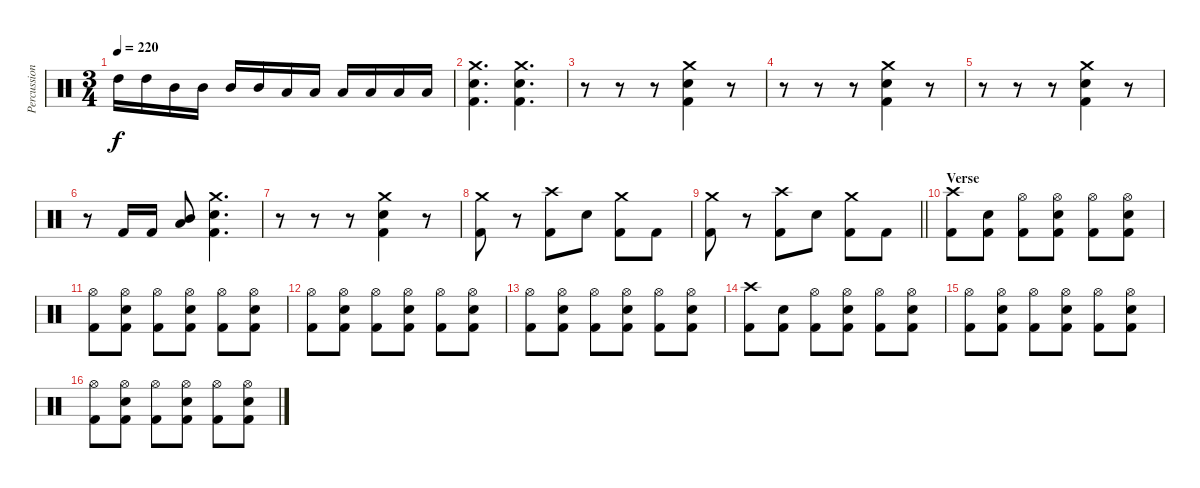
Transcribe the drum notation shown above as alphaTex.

\track ("Percussion" "Percussion") {instrument percussion}
\staff {score}
\articulation defaults
\ts (3 4)
\tempo 220
\clef neutral
\ks c "High Tom (hit)".16{dy f} "High Tom (hit)".16 "Mid Tom (hit)".16 "Mid Tom (hit)".16 "Mid Tom (hit)".16 "Mid Tom (hit)".16 "Low Tom (hit)".16 "Low Tom (hit)".16 "Low Tom (hit)".16 "Low Tom (hit)".16 "Low Floor Tom (hit)".16 "Low Floor Tom (hit)".16
|
("Crash medium (hit)" "Electric Snare (hit)" "Kick (hit) 2").4{d} ("Crash medium (hit)" "Electric Snare (hit)" "Kick (hit) 2").4{d} |
r.8 r.8 r.8 ("Crash medium (hit)" "Electric Snare (hit)" "Kick (hit) 2").4 r.8 |
r.8 r.8 r.8 ("Crash medium (hit)" "Electric Snare (hit)" "Kick (hit) 2").4 r.8 |
r.8 r.8 r.8 ("Crash medium (hit)" "Electric Snare (hit)" "Kick (hit) 2").4 r.8 |
r.8 "Kick (hit) 2".16 "Kick (hit) 2".16 ("Mid Tom (hit)" "Low Tom (hit)").8 ("Crash medium (hit)" "Electric Snare (hit)" "Kick (hit) 2").4{d} |
r.8 r.8 r.8 ("Crash medium (hit)" "Electric Snare (hit)" "Kick (hit) 2").4 r.8 |
("Crash medium (hit)" "Kick (hit) 2").8 r.8 ("Crash high (hit)" "Kick (hit) 2").8 "Electric Snare (hit)".8 ("Crash medium (hit)" "Kick (hit) 2").8 "Kick (hit) 2".8 |
\barLineRight lightlight
("Crash medium (hit)" "Kick (hit) 2").8 r.8 ("Crash high (hit)" "Kick (hit) 2").8 "Electric Snare (hit)".8 ("Crash medium (hit)" "Kick (hit) 2").8 "Kick (hit) 2".8 |
\section ("" "Verse")
("Crash high (hit)" "Kick (hit) 2").8 ("Electric Snare (hit)" "Kick (hit) 2").8 ("Hi-Hat (open)" "Kick (hit) 2").8 ("Hi-Hat (open)" "Electric Snare (hit)" "Kick (hit) 2").8 ("Hi-Hat (open)" "Kick (hit) 2").8 ("Hi-Hat (open)" "Electric Snare (hit)" "Kick (hit) 2").8 |
("Hi-Hat (open)" "Kick (hit) 2").8 ("Hi-Hat (open)" "Electric Snare (hit)" "Kick (hit) 2").8 ("Hi-Hat (open)" "Kick (hit) 2").8 ("Hi-Hat (open)" "Electric Snare (hit)" "Kick (hit) 2").8 ("Hi-Hat (open)" "Kick (hit) 2").8 ("Hi-Hat (open)" "Electric Snare (hit)" "Kick (hit) 2").8 |
("Hi-Hat (open)" "Kick (hit) 2").8 ("Hi-Hat (open)" "Electric Snare (hit)" "Kick (hit) 2").8 ("Hi-Hat (open)" "Kick (hit) 2").8 ("Hi-Hat (open)" "Electric Snare (hit)" "Kick (hit) 2").8 ("Hi-Hat (open)" "Kick (hit) 2").8 ("Hi-Hat (open)" "Electric Snare (hit)" "Kick (hit) 2").8 |
("Hi-Hat (open)" "Kick (hit) 2").8 ("Hi-Hat (open)" "Electric Snare (hit)" "Kick (hit) 2").8 ("Hi-Hat (open)" "Kick (hit) 2").8 ("Hi-Hat (open)" "Electric Snare (hit)" "Kick (hit) 2").8 ("Hi-Hat (open)" "Kick (hit) 2").8 ("Hi-Hat (open)" "Electric Snare (hit)" "Kick (hit) 2").8 |
("Crash high (hit)" "Kick (hit) 2").8 ("Electric Snare (hit)" "Kick (hit) 2").8 ("Hi-Hat (open)" "Kick (hit) 2").8 ("Hi-Hat (open)" "Electric Snare (hit)" "Kick (hit) 2").8 ("Hi-Hat (open)" "Kick (hit) 2").8 ("Hi-Hat (open)" "Electric Snare (hit)" "Kick (hit) 2").8 |
("Hi-Hat (open)" "Kick (hit) 2").8 ("Hi-Hat (open)" "Electric Snare (hit)" "Kick (hit) 2").8 ("Hi-Hat (open)" "Kick (hit) 2").8 ("Hi-Hat (open)" "Electric Snare (hit)" "Kick (hit) 2").8 ("Hi-Hat (open)" "Kick (hit) 2").8 ("Hi-Hat (open)" "Electric Snare (hit)" "Kick (hit) 2").8 |
("Hi-Hat (open)" "Kick (hit) 2").8 ("Hi-Hat (open)" "Electric Snare (hit)" "Kick (hit) 2").8 ("Hi-Hat (open)" "Kick (hit) 2").8 ("Hi-Hat (open)" "Electric Snare (hit)" "Kick (hit) 2").8 ("Hi-Hat (open)" "Kick (hit) 2").8 ("Hi-Hat (open)" "Electric Snare (hit)" "Kick (hit) 2").8
